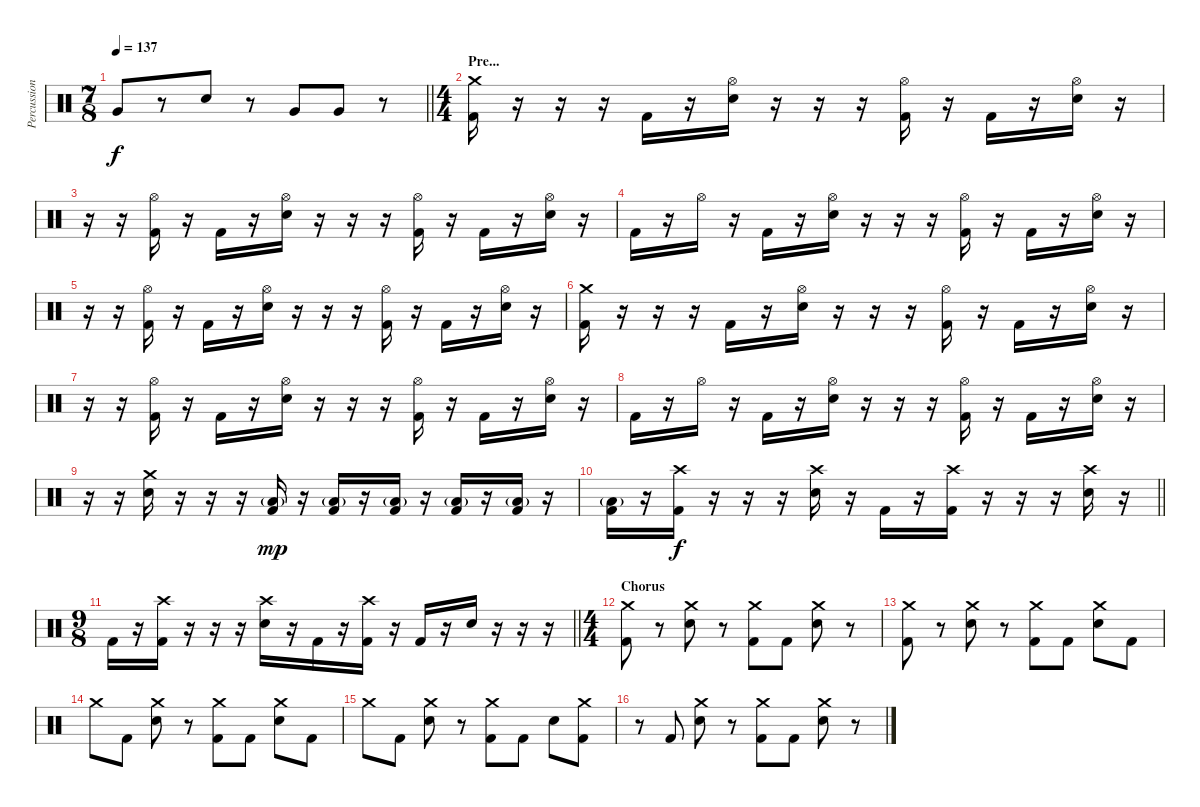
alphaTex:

\track ("Percussion" "Percussion") {instrument percussion}
\staff {score}
\articulation defaults
\ts (7 8)
\tempo 137
\clef neutral
\barLineRight lightlight
\ks c "Very Low Tom (hit)".8{dy f}
r.8 "Electric Snare (hit)".8 r.8 "Very Low Tom (hit)".8 "Very Low Tom (hit)".8 r.8 |
\ts (4 4)
\section ("" "Pre...")
("Crash medium (hit)" "Kick (hit) 2").16 r.16 r.16 r.16 "Kick (hit) 2".16 r.16 ("Hi-Hat (open)" "Electric Snare (hit)").16 r.16 r.16 r.16 ("Hi-Hat (open)" "Kick (hit) 2").16 r.16 "Kick (hit) 2".16 r.16 ("Hi-Hat (open)" "Electric Snare (hit)").16 r.16 |
r.16 r.16 ("Hi-Hat (open)" "Kick (hit) 2").16 r.16 "Kick (hit) 2".16 r.16 ("Hi-Hat (open)" "Electric Snare (hit)").16 r.16 r.16 r.16 ("Hi-Hat (open)" "Kick (hit) 2").16 r.16 "Kick (hit) 2".16 r.16 ("Hi-Hat (open)" "Electric Snare (hit)").16 r.16 |
"Kick (hit) 2".16 r.16 "Hi-Hat (open)".16 r.16 "Kick (hit) 2".16 r.16 ("Hi-Hat (open)" "Electric Snare (hit)").16 r.16 r.16 r.16 ("Hi-Hat (open)" "Kick (hit) 2").16 r.16 "Kick (hit) 2".16 r.16 ("Hi-Hat (open)" "Electric Snare (hit)").16 r.16 |
r.16 r.16 ("Hi-Hat (open)" "Kick (hit) 2").16 r.16 "Kick (hit) 2".16 r.16 ("Hi-Hat (open)" "Electric Snare (hit)").16 r.16 r.16 r.16 ("Hi-Hat (open)" "Kick (hit) 2").16 r.16 "Kick (hit) 2".16 r.16 ("Hi-Hat (open)" "Electric Snare (hit)").16 r.16 |
("Crash medium (hit)" "Kick (hit) 2").16 r.16 r.16 r.16 "Kick (hit) 2".16 r.16 ("Hi-Hat (open)" "Electric Snare (hit)").16 r.16 r.16 r.16 ("Hi-Hat (open)" "Kick (hit) 2").16 r.16 "Kick (hit) 2".16 r.16 ("Hi-Hat (open)" "Electric Snare (hit)").16 r.16 |
r.16 r.16 ("Hi-Hat (open)" "Kick (hit) 2").16 r.16 "Kick (hit) 2".16 r.16 ("Hi-Hat (open)" "Electric Snare (hit)").16 r.16 r.16 r.16 ("Hi-Hat (open)" "Kick (hit) 2").16 r.16 "Kick (hit) 2".16 r.16 ("Hi-Hat (open)" "Electric Snare (hit)").16 r.16 |
"Kick (hit) 2".16 r.16 "Hi-Hat (open)".16 r.16 "Kick (hit) 2".16 r.16 ("Hi-Hat (open)" "Electric Snare (hit)").16 r.16 r.16 r.16 ("Hi-Hat (open)" "Kick (hit) 2").16 r.16 "Kick (hit) 2".16 r.16 ("Hi-Hat (open)" "Electric Snare (hit)").16 r.16 |
r.16 r.16 ("Crash medium (hit)" "Electric Snare (hit)").16 r.16 r.16 r.16 ("Low Floor Tom (hit)"{g} "Kick (hit) 2").16{dy mp} r.16 ("Low Floor Tom (hit)"{g} "Kick (hit) 2").16 r.16 ("Low Floor Tom (hit)"{g} "Kick (hit) 2").16 r.16 ("Low Floor Tom (hit)"{g} "Kick (hit) 2").16 r.16 ("Low Floor Tom (hit)"{g} "Kick (hit) 2").16 r.16 |
\barLineRight lightlight
("Low Floor Tom (hit)"{g} "Kick (hit) 2").16 r.16 ("Crash high (hit)" "Kick (hit) 2").16{dy f} r.16 r.16 r.16 ("Crash high (hit)" "Electric Snare (hit)").16 r.16 "Kick (hit) 2".16 r.16 ("Crash high (hit)" "Kick (hit) 2").16 r.16 r.16 r.16 ("Crash high (hit)" "Electric Snare (hit)").16 r.16 |
\ts (9 8)
\barLineRight lightlight "Kick (hit) 2".16
r.16 ("Crash high (hit)" "Kick (hit) 2").16 r.16 r.16 r.16 ("Crash high (hit)" "Electric Snare (hit)").16 r.16 "Kick (hit) 2".16 r.16 ("Crash high (hit)" "Kick (hit) 2").16 r.16 "Kick (hit) 2".16 r.16 "Electric Snare (hit)".16 r.16 r.16 r.16 |
\ts (4 4)
\section ("" "Chorus")
("Crash medium (hit)" "Kick (hit) 2").8 r.8 ("Crash medium (hit)" "Electric Snare (hit)").8 r.8 ("Crash medium (hit)" "Kick (hit) 2").8 "Kick (hit) 2".8 ("Crash medium (hit)" "Electric Snare (hit)").8 r.8 |
("Crash medium (hit)" "Kick (hit) 2").8 r.8 ("Crash medium (hit)" "Electric Snare (hit)").8 r.8 ("Crash medium (hit)" "Kick (hit) 2").8 "Kick (hit) 2".8 ("Crash medium (hit)" "Electric Snare (hit)").8 "Kick (hit) 2".8 |
"Crash medium (hit)".8 "Kick (hit) 2".8 ("Crash medium (hit)" "Electric Snare (hit)").8 r.8 ("Crash medium (hit)" "Kick (hit) 2").8 "Kick (hit) 2".8 ("Crash medium (hit)" "Electric Snare (hit)").8 "Kick (hit) 2".8 |
"Crash medium (hit)".8 "Kick (hit) 2".8 ("Crash medium (hit)" "Electric Snare (hit)").8 r.8 ("Crash medium (hit)" "Kick (hit) 2").8 "Kick (hit) 2".8 "Electric Snare (hit)".8 ("Crash medium (hit)" "Kick (hit) 2").8 |
r.8 "Kick (hit) 2".8 ("Crash medium (hit)" "Electric Snare (hit)").8 r.8 ("Crash medium (hit)" "Kick (hit) 2").8 "Kick (hit) 2".8 ("Crash medium (hit)" "Electric Snare (hit)").8 r.8
